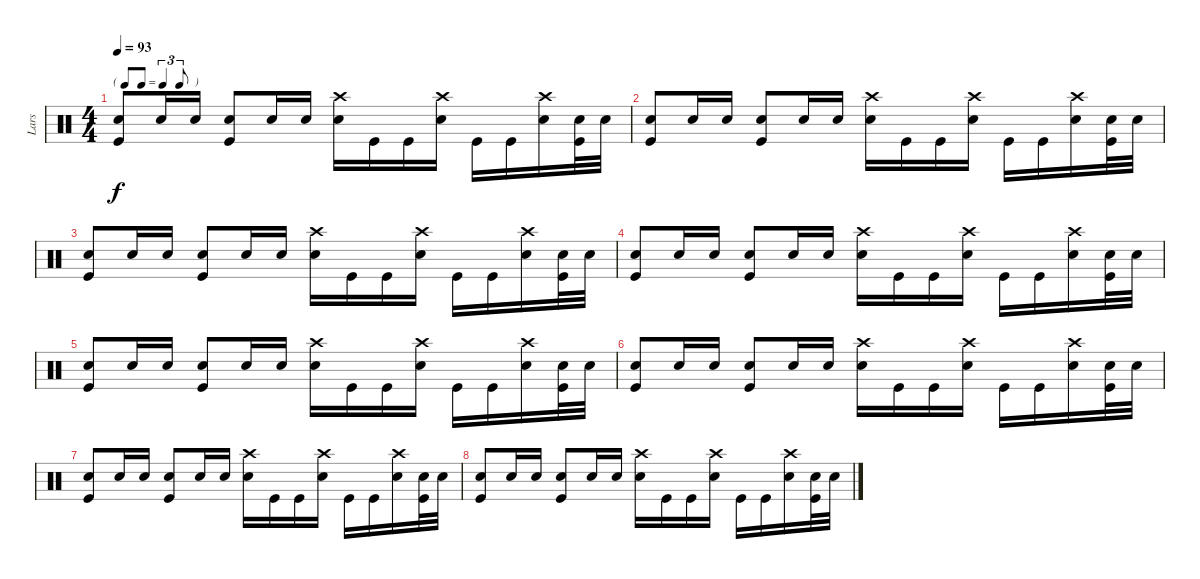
\track ("Lars" "Lars") {instrument percussion}
\staff {score}
\articulation defaults
\ts (4 4)
\tf triplet8th
\tempo 93
\clef neutral
\ks c
("Snare (hit) 2" "Kick (hit)").8{dy f} "Snare (hit) 2".16 "Snare (hit) 2".16 ("Snare (hit) 2" "Kick (hit)").8 "Snare (hit) 2".16 "Snare (hit) 2".16 ("Crash high (hit)" "Snare (hit) 2").16 "Kick (hit)".16 "Kick (hit)".16 ("Crash high (hit)" "Snare (hit) 2").16 "Kick (hit)".16 "Kick (hit)".16 ("Crash high (hit)" "Snare (hit) 2").16 ("Snare (hit) 2" "Kick (hit)").32 "Snare (hit) 2".32 |
("Snare (hit) 2" "Kick (hit)").8 "Snare (hit) 2".16 "Snare (hit) 2".16 ("Snare (hit) 2" "Kick (hit)").8 "Snare (hit) 2".16 "Snare (hit) 2".16 ("Crash high (hit)" "Snare (hit) 2").16 "Kick (hit)".16 "Kick (hit)".16 ("Crash high (hit)" "Snare (hit) 2").16 "Kick (hit)".16 "Kick (hit)".16 ("Crash high (hit)" "Snare (hit) 2").16 ("Snare (hit) 2" "Kick (hit)").32 "Snare (hit) 2".32 |
("Snare (hit) 2" "Kick (hit)").8 "Snare (hit) 2".16 "Snare (hit) 2".16 ("Snare (hit) 2" "Kick (hit)").8 "Snare (hit) 2".16 "Snare (hit) 2".16 ("Crash high (hit)" "Snare (hit) 2").16 "Kick (hit)".16 "Kick (hit)".16 ("Crash high (hit)" "Snare (hit) 2").16 "Kick (hit)".16 "Kick (hit)".16 ("Crash high (hit)" "Snare (hit) 2").16 ("Snare (hit) 2" "Kick (hit)").32 "Snare (hit) 2".32 |
("Snare (hit) 2" "Kick (hit)").8 "Snare (hit) 2".16 "Snare (hit) 2".16 ("Snare (hit) 2" "Kick (hit)").8 "Snare (hit) 2".16 "Snare (hit) 2".16 ("Crash high (hit)" "Snare (hit) 2").16 "Kick (hit)".16 "Kick (hit)".16 ("Crash high (hit)" "Snare (hit) 2").16 "Kick (hit)".16 "Kick (hit)".16 ("Crash high (hit)" "Snare (hit) 2").16 ("Snare (hit) 2" "Kick (hit)").32 "Snare (hit) 2".32 |
("Snare (hit) 2" "Kick (hit)").8{volume 8} "Snare (hit) 2".16 "Snare (hit) 2".16 ("Snare (hit) 2" "Kick (hit)").8 "Snare (hit) 2".16 "Snare (hit) 2".16 ("Crash high (hit)" "Snare (hit) 2").16 "Kick (hit)".16 "Kick (hit)".16 ("Crash high (hit)" "Snare (hit) 2").16 "Kick (hit)".16 "Kick (hit)".16 ("Crash high (hit)" "Snare (hit) 2").16 ("Snare (hit) 2" "Kick (hit)").32 "Snare (hit) 2".32 |
("Snare (hit) 2" "Kick (hit)").8 "Snare (hit) 2".16 "Snare (hit) 2".16 ("Snare (hit) 2" "Kick (hit)").8 "Snare (hit) 2".16 "Snare (hit) 2".16 ("Crash high (hit)" "Snare (hit) 2").16 "Kick (hit)".16 "Kick (hit)".16 ("Crash high (hit)" "Snare (hit) 2").16 "Kick (hit)".16 "Kick (hit)".16 ("Crash high (hit)" "Snare (hit) 2").16 ("Snare (hit) 2" "Kick (hit)").32 "Snare (hit) 2".32 |
("Snare (hit) 2" "Kick (hit)").8{volume 0} "Snare (hit) 2".16 "Snare (hit) 2".16 ("Snare (hit) 2" "Kick (hit)").8 "Snare (hit) 2".16 "Snare (hit) 2".16 ("Crash high (hit)" "Snare (hit) 2").16 "Kick (hit)".16 "Kick (hit)".16 ("Crash high (hit)" "Snare (hit) 2").16 "Kick (hit)".16 "Kick (hit)".16 ("Crash high (hit)" "Snare (hit) 2").16 ("Snare (hit) 2" "Kick (hit)").32 "Snare (hit) 2".32 |
("Snare (hit) 2" "Kick (hit)").8 "Snare (hit) 2".16 "Snare (hit) 2".16 ("Snare (hit) 2" "Kick (hit)").8 "Snare (hit) 2".16 "Snare (hit) 2".16 ("Crash high (hit)" "Snare (hit) 2").16 "Kick (hit)".16 "Kick (hit)".16 ("Crash high (hit)" "Snare (hit) 2").16 "Kick (hit)".16 "Kick (hit)".16 ("Crash high (hit)" "Snare (hit) 2").16 ("Snare (hit) 2" "Kick (hit)").32 "Snare (hit) 2".32
